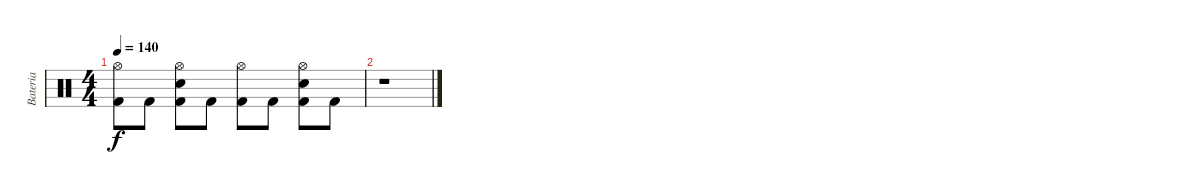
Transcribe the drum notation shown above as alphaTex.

\track ("Bateria" "Bateria") {instrument percussion}
\staff {score}
\articulation defaults
\ts (4 4)
\tempo 140
\clef neutral
\ks c
("Hi-Hat (open)" "Kick (hit) 2").8{dy f} "Kick (hit) 2".8 ("Hi-Hat (open)" "Snare (hit) 2" "Kick (hit) 2").8 "Kick (hit) 2".8 ("Hi-Hat (open)" "Kick (hit) 2").8 "Kick (hit) 2".8 ("Snare (hit) 2" "Hi-Hat (open)" "Kick (hit) 2").8 "Kick (hit) 2".8 |
r.1
